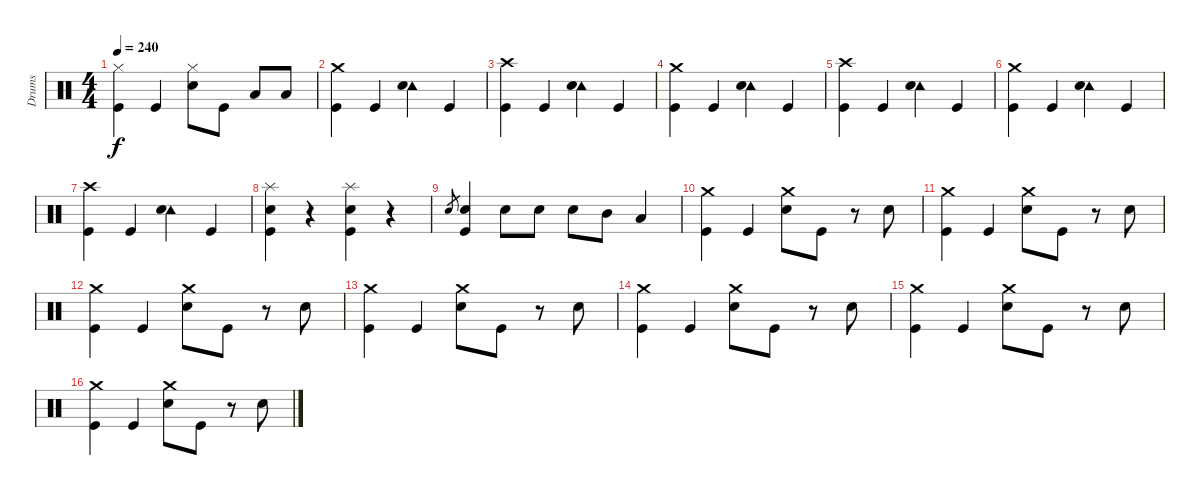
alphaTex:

\track ("Drums" "Drums") {instrument percussion}
\staff {score}
\articulation defaults
\ts (4 4)
\tempo 240
\clef neutral
\ks c
("Hi-Hat (closed)" "Kick (hit)").4{dy f} "Kick (hit)".4 ("Hi-Hat (closed)" "Snare (hit) 2").8 "Kick (hit)".8 "Low Tom (hit)".8 "Low Tom (hit)".8 |
("Crash medium (hit)" "Kick (hit)").4 "Kick (hit)".4 ("Tambourine (hit)" "Snare (hit) 2").4 "Kick (hit)".4 |
("Crash high (hit)" "Kick (hit)").4 "Kick (hit)".4 ("Tambourine (hit)" "Snare (hit) 2").4 "Kick (hit)".4 |
("Crash medium (hit)" "Kick (hit)").4 "Kick (hit)".4 ("Tambourine (hit)" "Snare (hit) 2").4 "Kick (hit)".4 |
("Crash high (hit)" "Kick (hit)").4 "Kick (hit)".4 ("Tambourine (hit)" "Snare (hit) 2").4 "Kick (hit)".4 |
("Crash medium (hit)" "Kick (hit)").4 "Kick (hit)".4 ("Tambourine (hit)" "Snare (hit) 2").4 "Kick (hit)".4 |
("Crash high (hit)" "Kick (hit)").4 "Kick (hit)".4 ("Tambourine (hit)" "Snare (hit) 2").4 "Kick (hit)".4 |
("Splash (hit)" "Snare (hit) 2" "Kick (hit)").4 r.4 ("Splash (hit)" "Snare (hit) 2" "Kick (hit)").4 r.4 |
"Snare (hit) 2".8{gr} ("Snare (hit) 2" "Kick (hit)").4 "Snare (hit) 2".8 "Snare (hit) 2".8 "Snare (hit) 2".8 "Mid Tom (hit)".8 "Low Tom (hit)".4 |
("Crash medium (hit)" "Kick (hit)").4 "Kick (hit)".4 ("Crash medium (hit)" "Snare (hit) 2").8 "Kick (hit)".8 r.8 "Snare (hit) 2".8 |
("Crash medium (hit)" "Kick (hit)").4 "Kick (hit)".4 ("Crash medium (hit)" "Snare (hit) 2").8 "Kick (hit)".8 r.8 "Snare (hit) 2".8 |
("Crash medium (hit)" "Kick (hit)").4 "Kick (hit)".4 ("Crash medium (hit)" "Snare (hit) 2").8 "Kick (hit)".8 r.8 "Snare (hit) 2".8 |
("Crash medium (hit)" "Kick (hit)").4 "Kick (hit)".4 ("Crash medium (hit)" "Snare (hit) 2").8 "Kick (hit)".8 r.8 "Snare (hit) 2".8 |
("Crash medium (hit)" "Kick (hit)").4 "Kick (hit)".4 ("Crash medium (hit)" "Snare (hit) 2").8 "Kick (hit)".8 r.8 "Snare (hit) 2".8 |
("Crash medium (hit)" "Kick (hit)").4 "Kick (hit)".4 ("Crash medium (hit)" "Snare (hit) 2").8 "Kick (hit)".8 r.8 "Snare (hit) 2".8 |
("Crash medium (hit)" "Kick (hit)").4 "Kick (hit)".4 ("Crash medium (hit)" "Snare (hit) 2").8 "Kick (hit)".8 r.8 "Snare (hit) 2".8
